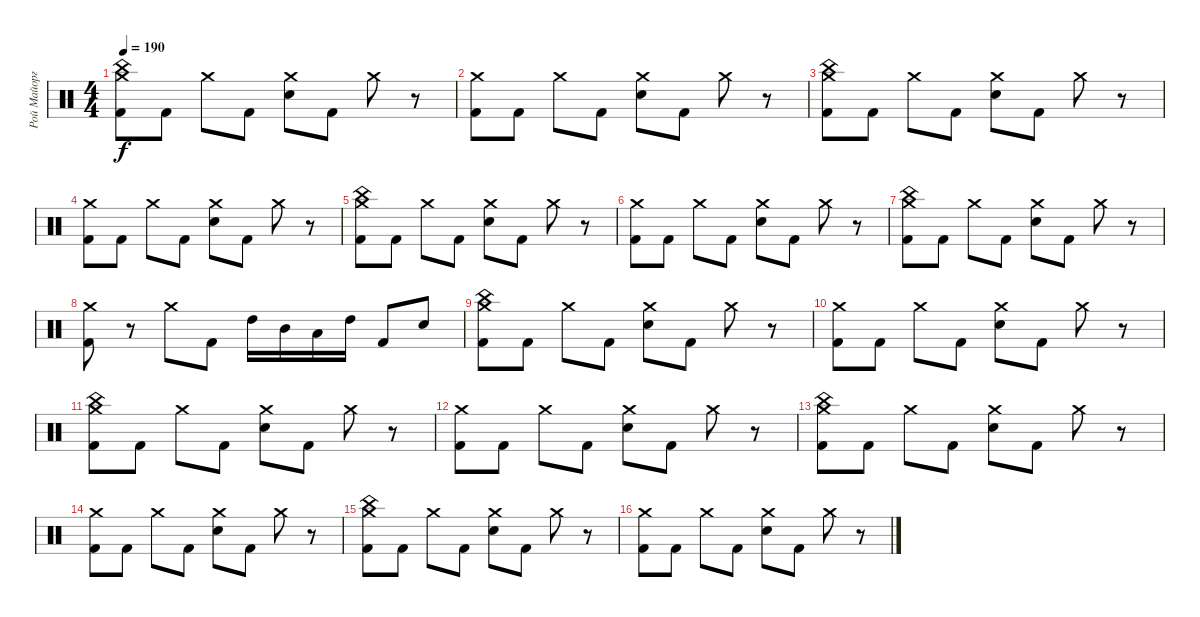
\track ("Рой Майорга" "Рой Майорг") {instrument percussion}
\staff {score}
\articulation defaults
\ts (4 4)
\tempo 190
\clef neutral
\ks c
("Crash medium (hit)" "China (hit)" "Kick (hit) 2").8{dy f} "Kick (hit) 2".8 "Crash medium (hit)".8 "Kick (hit) 2".8 ("Crash medium (hit)" "Electric Snare (hit)").8 "Kick (hit) 2".8 "Crash medium (hit)".8 r.8 |
("Crash medium (hit)" "Kick (hit) 2").8 "Kick (hit) 2".8 "Crash medium (hit)".8 "Kick (hit) 2".8 ("Crash medium (hit)" "Electric Snare (hit)").8 "Kick (hit) 2".8 "Crash medium (hit)".8 r.8 |
("Crash medium (hit)" "China (hit)" "Kick (hit) 2").8 "Kick (hit) 2".8 "Crash medium (hit)".8 "Kick (hit) 2".8 ("Crash medium (hit)" "Electric Snare (hit)").8 "Kick (hit) 2".8 "Crash medium (hit)".8 r.8 |
("Crash medium (hit)" "Kick (hit) 2").8 "Kick (hit) 2".8 "Crash medium (hit)".8 "Kick (hit) 2".8 ("Crash medium (hit)" "Electric Snare (hit)").8 "Kick (hit) 2".8 "Crash medium (hit)".8 r.8 |
("Crash medium (hit)" "China (hit)" "Kick (hit) 2").8 "Kick (hit) 2".8 "Crash medium (hit)".8 "Kick (hit) 2".8 ("Crash medium (hit)" "Electric Snare (hit)").8 "Kick (hit) 2".8 "Crash medium (hit)".8 r.8 |
("Crash medium (hit)" "Kick (hit) 2").8 "Kick (hit) 2".8 "Crash medium (hit)".8 "Kick (hit) 2".8 ("Crash medium (hit)" "Electric Snare (hit)").8 "Kick (hit) 2".8 "Crash medium (hit)".8 r.8 |
("Crash medium (hit)" "China (hit)" "Kick (hit) 2").8 "Kick (hit) 2".8 "Crash medium (hit)".8 "Kick (hit) 2".8 ("Crash medium (hit)" "Electric Snare (hit)").8 "Kick (hit) 2".8 "Crash medium (hit)".8 r.8 |
("Crash medium (hit)" "Kick (hit) 2").8 r.8 "Crash medium (hit)".8 "Kick (hit) 2".8 "High Tom (hit)".16 "Mid Tom (hit)".16 "Low Tom (hit)".16 "High Tom (hit)".16 "Kick (hit) 2".8 "Electric Snare (hit)".8 |
("Crash medium (hit)" "China (hit)" "Kick (hit) 2").8 "Kick (hit) 2".8 "Crash medium (hit)".8 "Kick (hit) 2".8 ("Crash medium (hit)" "Electric Snare (hit)").8 "Kick (hit) 2".8 "Crash medium (hit)".8 r.8 |
("Crash medium (hit)" "Kick (hit) 2").8 "Kick (hit) 2".8 "Crash medium (hit)".8 "Kick (hit) 2".8 ("Crash medium (hit)" "Electric Snare (hit)").8 "Kick (hit) 2".8 "Crash medium (hit)".8 r.8 |
("Crash medium (hit)" "China (hit)" "Kick (hit) 2").8 "Kick (hit) 2".8 "Crash medium (hit)".8 "Kick (hit) 2".8 ("Crash medium (hit)" "Electric Snare (hit)").8 "Kick (hit) 2".8 "Crash medium (hit)".8 r.8 |
("Crash medium (hit)" "Kick (hit) 2").8 "Kick (hit) 2".8 "Crash medium (hit)".8 "Kick (hit) 2".8 ("Crash medium (hit)" "Electric Snare (hit)").8 "Kick (hit) 2".8 "Crash medium (hit)".8 r.8 |
("Crash medium (hit)" "China (hit)" "Kick (hit) 2").8 "Kick (hit) 2".8 "Crash medium (hit)".8 "Kick (hit) 2".8 ("Crash medium (hit)" "Electric Snare (hit)").8 "Kick (hit) 2".8 "Crash medium (hit)".8 r.8 |
("Crash medium (hit)" "Kick (hit) 2").8 "Kick (hit) 2".8 "Crash medium (hit)".8 "Kick (hit) 2".8 ("Crash medium (hit)" "Electric Snare (hit)").8 "Kick (hit) 2".8 "Crash medium (hit)".8 r.8 |
("Crash medium (hit)" "China (hit)" "Kick (hit) 2").8 "Kick (hit) 2".8 "Crash medium (hit)".8 "Kick (hit) 2".8 ("Crash medium (hit)" "Electric Snare (hit)").8 "Kick (hit) 2".8 "Crash medium (hit)".8 r.8 |
("Crash medium (hit)" "Kick (hit) 2").8 "Kick (hit) 2".8 "Crash medium (hit)".8 "Kick (hit) 2".8 ("Crash medium (hit)" "Electric Snare (hit)").8 "Kick (hit) 2".8 "Crash medium (hit)".8 r.8
